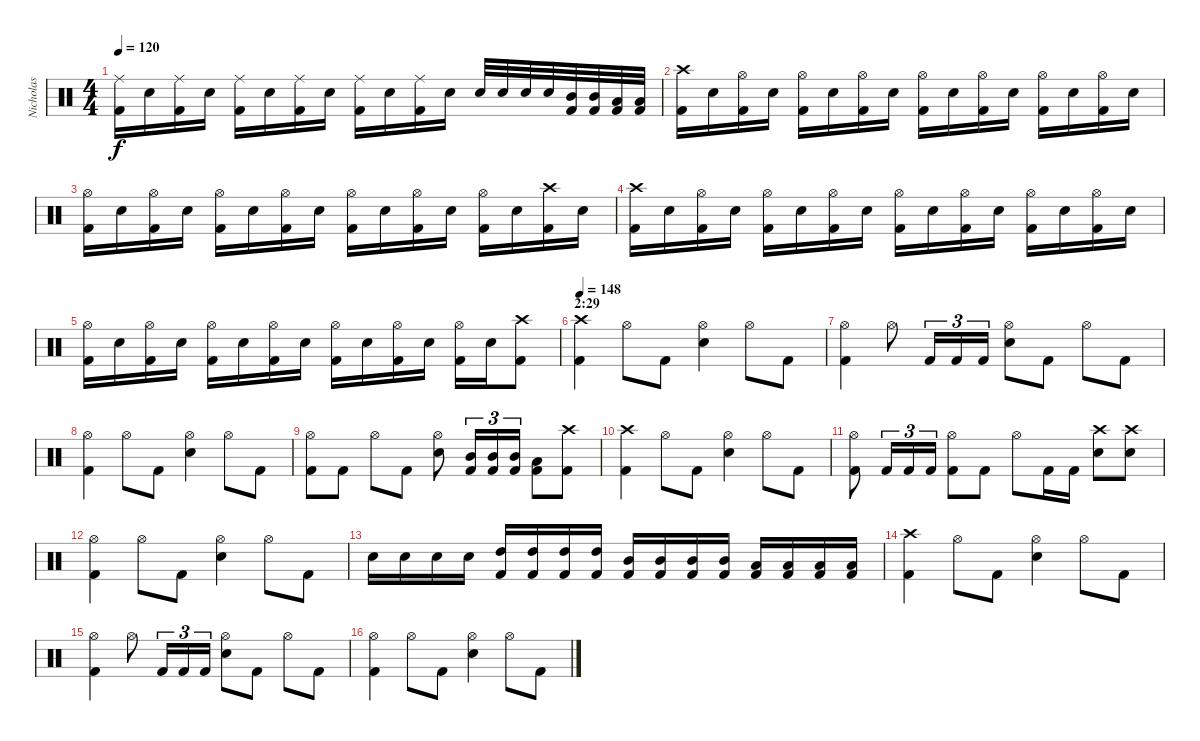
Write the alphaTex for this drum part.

\track ("Nicholas" "Nicholas") {instrument percussion}
\staff {score}
\articulation defaults
\ts (4 4)
\tempo 120
\clef neutral
\ks c
("Kick (hit) 2" "Ride (middle)").16{dy f} "Snare (hit) 2".16 ("Kick (hit) 2" "Ride (middle)").16 "Snare (hit) 2".16 ("Kick (hit) 2" "Ride (middle)").16 "Snare (hit) 2".16 ("Kick (hit) 2" "Ride (middle)").16 "Snare (hit) 2".16 ("Kick (hit) 2" "Ride (middle)").16 "Snare (hit) 2".16 ("Kick (hit) 2" "Ride (middle)").16 "Snare (hit) 2".16 "Snare (hit) 2".32 "Snare (hit) 2".32 "Snare (hit) 2".32 "Snare (hit) 2".32 ("Kick (hit) 2" "Mid Tom (hit)").32 ("Kick (hit) 2" "Mid Tom (hit)").32 ("Kick (hit) 2" "Low Tom (hit)").32 ("Kick (hit) 2" "Low Tom (hit)").32 |
("Kick (hit) 2" "Crash high (hit)").16 "Snare (hit) 2".16 ("Kick (hit) 2" "Hi-Hat (open)").16 "Snare (hit) 2".16 ("Kick (hit) 2" "Hi-Hat (open)").16 "Snare (hit) 2".16 ("Kick (hit) 2" "Hi-Hat (open)").16 "Snare (hit) 2".16 ("Kick (hit) 2" "Hi-Hat (open)").16 "Snare (hit) 2".16 ("Kick (hit) 2" "Hi-Hat (open)").16 "Snare (hit) 2".16 ("Kick (hit) 2" "Hi-Hat (open)").16 "Snare (hit) 2".16 ("Kick (hit) 2" "Hi-Hat (open)").16 "Snare (hit) 2".16 |
("Kick (hit) 2" "Hi-Hat (open)").16 "Snare (hit) 2".16 ("Kick (hit) 2" "Hi-Hat (open)").16 "Snare (hit) 2".16 ("Kick (hit) 2" "Hi-Hat (open)").16 "Snare (hit) 2".16 ("Kick (hit) 2" "Hi-Hat (open)").16 "Snare (hit) 2".16 ("Kick (hit) 2" "Hi-Hat (open)").16 "Snare (hit) 2".16 ("Kick (hit) 2" "Hi-Hat (open)").16 "Snare (hit) 2".16 ("Kick (hit) 2" "Hi-Hat (open)").16 "Snare (hit) 2".16 ("Kick (hit) 2" "Crash high (hit)").16 "Snare (hit) 2".16 |
("Kick (hit) 2" "Crash high (hit)").16 "Snare (hit) 2".16 ("Kick (hit) 2" "Hi-Hat (open)").16 "Snare (hit) 2".16 ("Kick (hit) 2" "Hi-Hat (open)").16 "Snare (hit) 2".16 ("Kick (hit) 2" "Hi-Hat (open)").16 "Snare (hit) 2".16 ("Kick (hit) 2" "Hi-Hat (open)").16 "Snare (hit) 2".16 ("Kick (hit) 2" "Hi-Hat (open)").16 "Snare (hit) 2".16 ("Kick (hit) 2" "Hi-Hat (open)").16 "Snare (hit) 2".16 ("Kick (hit) 2" "Hi-Hat (open)").16 "Snare (hit) 2".16 |
("Kick (hit) 2" "Hi-Hat (open)").16 "Snare (hit) 2".16 ("Kick (hit) 2" "Hi-Hat (open)").16 "Snare (hit) 2".16 ("Kick (hit) 2" "Hi-Hat (open)").16 "Snare (hit) 2".16 ("Kick (hit) 2" "Hi-Hat (open)").16 "Snare (hit) 2".16 ("Kick (hit) 2" "Hi-Hat (open)").16 "Snare (hit) 2".16 ("Kick (hit) 2" "Hi-Hat (open)").16 "Snare (hit) 2".16 ("Kick (hit) 2" "Hi-Hat (open)").16 "Snare (hit) 2".16 ("Kick (hit) 2" "Crash high (hit)").8 |
\section ("" "2:29")
\tempo 148
("Kick (hit) 2" "Crash high (hit)").4 "Hi-Hat (open)".8 "Kick (hit) 2".8 ("Snare (hit) 2" "Hi-Hat (open)").4 "Hi-Hat (open)".8 "Kick (hit) 2".8 |
("Kick (hit) 2" "Hi-Hat (open)").4 "Hi-Hat (open)".8 "Kick (hit) 2".16{tu (3 2)} "Kick (hit) 2".16{tu (3 2)} "Kick (hit) 2".16{tu (3 2)} ("Snare (hit) 2" "Hi-Hat (open)").8 "Kick (hit) 2".8 "Hi-Hat (open)".8 "Kick (hit) 2".8 |
("Kick (hit) 2" "Hi-Hat (open)").4 "Hi-Hat (open)".8 "Kick (hit) 2".8 ("Snare (hit) 2" "Hi-Hat (open)").4 "Hi-Hat (open)".8 "Kick (hit) 2".8 |
("Kick (hit) 2" "Hi-Hat (open)").8 "Kick (hit) 2".8 "Hi-Hat (open)".8 "Kick (hit) 2".8 ("Snare (hit) 2" "Hi-Hat (open)").8 ("Kick (hit) 2" "Mid Tom (hit)").16{tu (3 2)} ("Kick (hit) 2" "Mid Tom (hit)").16{tu (3 2)} ("Kick (hit) 2" "Mid Tom (hit)").16{tu (3 2)} ("Kick (hit) 2" "Low Tom (hit)").8 ("Kick (hit) 2" "Crash high (hit)").8 |
("Kick (hit) 2" "Crash high (hit)").4 "Hi-Hat (open)".8 "Kick (hit) 2".8 ("Snare (hit) 2" "Hi-Hat (open)").4 "Hi-Hat (open)".8 "Kick (hit) 2".8 |
("Kick (hit) 2" "Hi-Hat (open)").8 "Kick (hit) 2".16{tu (3 2)} "Kick (hit) 2".16{tu (3 2)} "Kick (hit) 2".16{tu (3 2)} ("Kick (hit) 2" "Hi-Hat (open)").8 "Kick (hit) 2".8 "Hi-Hat (open)".8 "Kick (hit) 2".16 "Kick (hit) 2".16 ("Snare (hit) 2" "Crash high (hit)").8 ("Snare (hit) 2" "Crash high (hit)").8 |
("Kick (hit) 2" "Hi-Hat (open)").4 "Hi-Hat (open)".8 "Kick (hit) 2".8 ("Snare (hit) 2" "Hi-Hat (open)").4 "Hi-Hat (open)".8 "Kick (hit) 2".8 |
"Snare (hit) 2".16 "Snare (hit) 2".16 "Snare (hit) 2".16 "Snare (hit) 2".16 ("Kick (hit) 2" "High Tom (hit)").16 ("Kick (hit) 2" "High Tom (hit)").16 ("Kick (hit) 2" "High Tom (hit)").16 ("Kick (hit) 2" "High Tom (hit)").16 ("Kick (hit) 2" "Mid Tom (hit)").16 ("Kick (hit) 2" "Mid Tom (hit)").16 ("Kick (hit) 2" "Mid Tom (hit)").16 ("Kick (hit) 2" "Mid Tom (hit)").16 ("Kick (hit) 2" "Low Tom (hit)").16 ("Kick (hit) 2" "Low Tom (hit)").16 ("Kick (hit) 2" "Low Tom (hit)").16 ("Kick (hit) 2" "Low Tom (hit)").16 |
("Kick (hit) 2" "Crash high (hit)").4 "Hi-Hat (open)".8 "Kick (hit) 2".8 ("Snare (hit) 2" "Hi-Hat (open)").4 "Hi-Hat (open)".8 "Kick (hit) 2".8 |
("Kick (hit) 2" "Hi-Hat (open)").4 "Hi-Hat (open)".8 "Kick (hit) 2".16{tu (3 2)} "Kick (hit) 2".16{tu (3 2)} "Kick (hit) 2".16{tu (3 2)} ("Snare (hit) 2" "Hi-Hat (open)").8 "Kick (hit) 2".8 "Hi-Hat (open)".8 "Kick (hit) 2".8 |
("Kick (hit) 2" "Hi-Hat (open)").4 "Hi-Hat (open)".8 "Kick (hit) 2".8 ("Snare (hit) 2" "Hi-Hat (open)").4 "Hi-Hat (open)".8 "Kick (hit) 2".8
